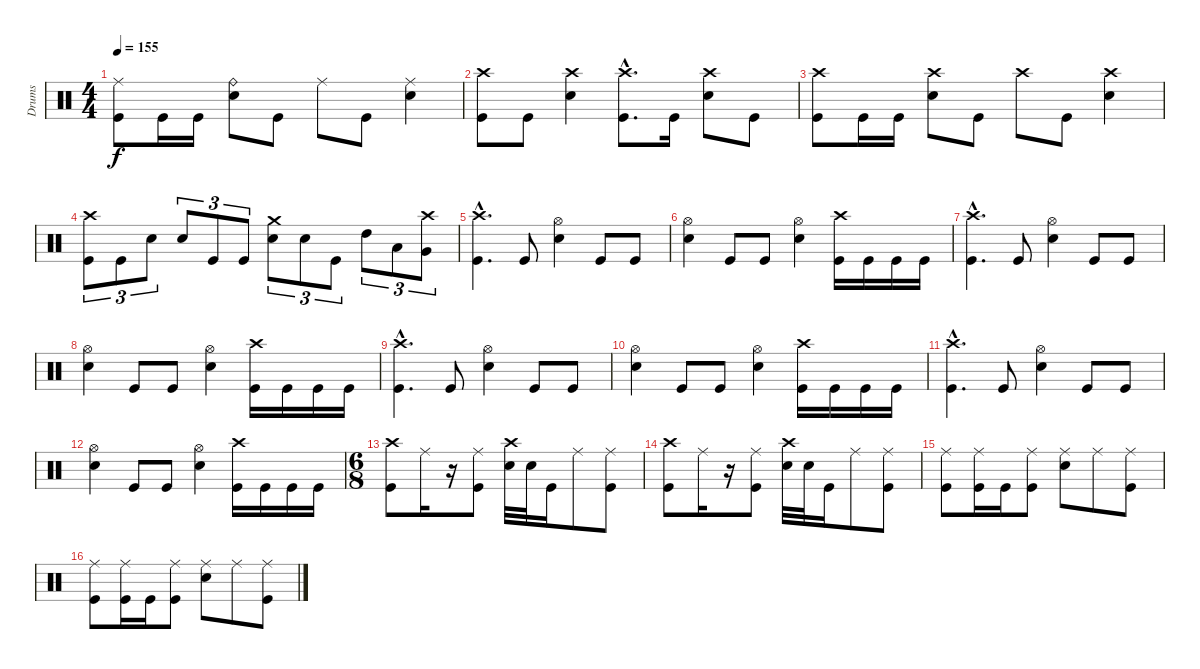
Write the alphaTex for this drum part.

\track ("Drums" "Drums") {instrument percussion}
\staff {score}
\articulation defaults
\ts (4 4)
\tempo 155
\clef neutral
\ks c
("Kick (hit)" "Ride (middle)").8{dy f} "Kick (hit)".16 "Kick (hit)".16 ("Snare (hit) 2" "Ride (bell)").8 "Kick (hit)".8 "Ride (middle)".8 "Kick (hit)".8 ("Snare (hit) 2" "Ride (middle)").4 |
("Kick (hit)" "Crash high (hit)").8 "Kick (hit)".8 ("Snare (hit) 2" "Crash high (hit)").4 ("Kick (hit)"{hac} "Crash high (hit)"{hac}).8{d} "Kick (hit)".16 ("Snare (hit) 2" "Crash high (hit)").8 "Kick (hit)".8 |
("Kick (hit)" "Crash high (hit)").8 "Kick (hit)".16 "Kick (hit)".16 ("Snare (hit) 2" "Crash high (hit)").8 "Kick (hit)".8 "Crash high (hit)".8 "Kick (hit)".8 ("Snare (hit) 2" "Crash high (hit)").4 |
("Kick (hit)" "Crash high (hit)").8{tu (3 2)} "Kick (hit)".8{tu (3 2)} "Snare (hit) 2".8{tu (3 2)} "Snare (hit) 2".8{tu (3 2)} "Kick (hit)".8{tu (3 2)} "Kick (hit)".8{tu (3 2)} ("Snare (hit) 2" "Crash medium (hit)").8{tu (3 2)} "Snare (hit) 2".8{tu (3 2)} "Kick (hit)".8{tu (3 2)} "High Tom (hit)".8{tu (3 2)} "Low Tom (hit)".8{tu (3 2)} ("Very Low Tom (hit)" "Crash high (hit)").8{tu (3 2)} |
("Kick (hit)"{hac} "Crash high (hit)"{hac}).4{d} "Kick (hit)".8 ("Snare (hit) 2" "Hi-Hat (open)").4 "Kick (hit)".8 "Kick (hit)".8 |
("Snare (hit) 2" "Hi-Hat (open)").4 "Kick (hit)".8 "Kick (hit)".8 ("Snare (hit) 2" "Hi-Hat (open)").4 ("Kick (hit)" "Crash high (hit)").16 "Kick (hit)".16 "Kick (hit)".16 "Kick (hit)".16 |
("Kick (hit)"{hac} "Crash high (hit)"{hac}).4{d} "Kick (hit)".8 ("Snare (hit) 2" "Hi-Hat (open)").4 "Kick (hit)".8 "Kick (hit)".8 |
("Snare (hit) 2" "Hi-Hat (open)").4 "Kick (hit)".8 "Kick (hit)".8 ("Snare (hit) 2" "Hi-Hat (open)").4 ("Kick (hit)" "Crash high (hit)").16 "Kick (hit)".16 "Kick (hit)".16 "Kick (hit)".16 |
("Kick (hit)"{hac} "Crash high (hit)"{hac}).4{d} "Kick (hit)".8 ("Snare (hit) 2" "Hi-Hat (open)").4 "Kick (hit)".8 "Kick (hit)".8 |
("Snare (hit) 2" "Hi-Hat (open)").4 "Kick (hit)".8 "Kick (hit)".8 ("Snare (hit) 2" "Hi-Hat (open)").4 ("Kick (hit)" "Crash high (hit)").16 "Kick (hit)".16 "Kick (hit)".16 "Kick (hit)".16 |
("Kick (hit)"{hac} "Crash high (hit)"{hac}).4{d} "Kick (hit)".8 ("Snare (hit) 2" "Hi-Hat (open)").4 "Kick (hit)".8 "Kick (hit)".8 |
("Snare (hit) 2" "Hi-Hat (open)").4 "Kick (hit)".8 "Kick (hit)".8 ("Snare (hit) 2" "Hi-Hat (open)").4 ("Kick (hit)" "Crash high (hit)").16 "Kick (hit)".16 "Kick (hit)".16 "Kick (hit)".16 |
\ts (6 8)
("Kick (hit)" "Crash high (hit)").8 "Ride (middle)".16 r.16 ("Kick (hit)" "Ride (middle)").8 ("Snare (hit) 2" "Crash high (hit)").32 "Snare (hit) 2".32 "Kick (hit)".16 "Ride (middle)".8 ("Kick (hit)" "Ride (middle)").8 |
("Kick (hit)" "Crash high (hit)").8 "Ride (middle)".16 r.16 ("Kick (hit)" "Ride (middle)").8 ("Snare (hit) 2" "Crash high (hit)").32 "Snare (hit) 2".32 "Kick (hit)".16 "Ride (middle)".8 ("Kick (hit)" "Ride (middle)").8 |
("Kick (hit)" "Ride (middle)").8 ("Kick (hit)" "Ride (middle)").16 "Kick (hit)".16 ("Kick (hit)" "Ride (middle)").8 ("Snare (hit) 2" "Ride (middle)").8 "Ride (middle)".8 ("Kick (hit)" "Ride (middle)").8 |
("Kick (hit)" "Ride (middle)").8 ("Kick (hit)" "Ride (middle)").16 "Kick (hit)".16 ("Kick (hit)" "Ride (middle)").8 ("Snare (hit) 2" "Ride (middle)").8 "Ride (middle)".8 ("Kick (hit)" "Ride (middle)").8
